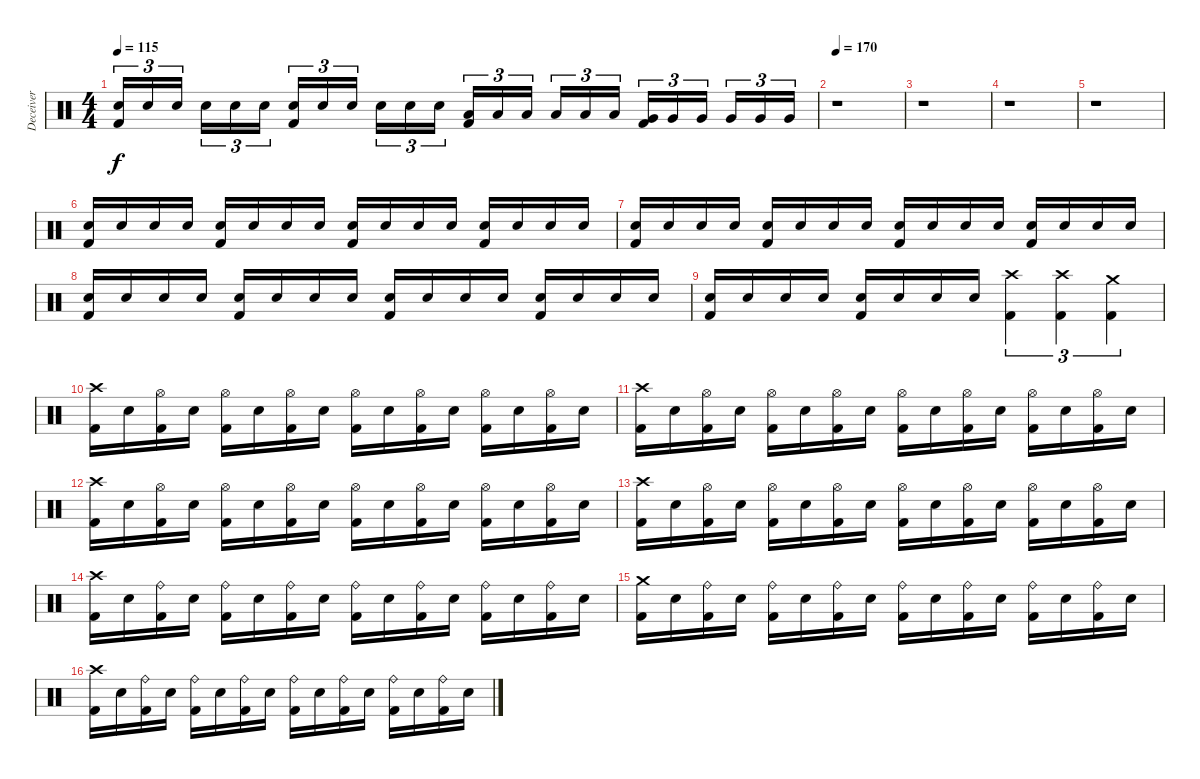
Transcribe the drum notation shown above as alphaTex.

\track ("Deceiver" "Deceiver") {instrument percussion}
\staff {score}
\articulation defaults
\ts (4 4)
\tempo 115
\clef neutral
\ks c
("Electric Snare (hit)" "Kick (hit) 2").16{tu (3 2) dy f} "Electric Snare (hit)".16{tu (3 2)} "Electric Snare (hit)".16{tu (3 2) beam splitsecondary} "Electric Snare (hit)".16{tu (3 2)} "Electric Snare (hit)".16{tu (3 2)} "Electric Snare (hit)".16{tu (3 2)} ("Electric Snare (hit)" "Kick (hit) 2").16{tu (3 2)} "Electric Snare (hit)".16{tu (3 2)} "Electric Snare (hit)".16{tu (3 2) beam splitsecondary} "Electric Snare (hit)".16{tu (3 2)} "Electric Snare (hit)".16{tu (3 2)} "Electric Snare (hit)".16{tu (3 2)} ("Low Tom (hit)" "Kick (hit) 2").16{tu (3 2)} "Low Tom (hit)".16{tu (3 2)} "Low Tom (hit)".16{tu (3 2) beam splitsecondary} "Low Tom (hit)".16{tu (3 2)} "Low Tom (hit)".16{tu (3 2)} "Low Tom (hit)".16{tu (3 2)} ("Very Low Tom (hit)" "Kick (hit) 2").16{tu (3 2)} "Very Low Tom (hit)".16{tu (3 2)} "Very Low Tom (hit)".16{tu (3 2) beam splitsecondary} "Very Low Tom (hit)".16{tu (3 2)} "Very Low Tom (hit)".16{tu (3 2)} "Very Low Tom (hit)".16{tu (3 2)} |
\tempo 170
r.1 |
r.1 |
r.1 |
r.1 |
("Electric Snare (hit)" "Kick (hit) 2").16 "Electric Snare (hit)".16 "Electric Snare (hit)".16 "Electric Snare (hit)".16 ("Electric Snare (hit)" "Kick (hit) 2").16 "Electric Snare (hit)".16 "Electric Snare (hit)".16 "Electric Snare (hit)".16 ("Electric Snare (hit)" "Kick (hit) 2").16 "Electric Snare (hit)".16 "Electric Snare (hit)".16 "Electric Snare (hit)".16 ("Electric Snare (hit)" "Kick (hit) 2").16 "Electric Snare (hit)".16 "Electric Snare (hit)".16 "Electric Snare (hit)".16 |
("Electric Snare (hit)" "Kick (hit) 2").16 "Electric Snare (hit)".16 "Electric Snare (hit)".16 "Electric Snare (hit)".16 ("Electric Snare (hit)" "Kick (hit) 2").16 "Electric Snare (hit)".16 "Electric Snare (hit)".16 "Electric Snare (hit)".16 ("Electric Snare (hit)" "Kick (hit) 2").16 "Electric Snare (hit)".16 "Electric Snare (hit)".16 "Electric Snare (hit)".16 ("Electric Snare (hit)" "Kick (hit) 2").16 "Electric Snare (hit)".16 "Electric Snare (hit)".16 "Electric Snare (hit)".16 |
("Electric Snare (hit)" "Kick (hit) 2").16 "Electric Snare (hit)".16 "Electric Snare (hit)".16 "Electric Snare (hit)".16 ("Electric Snare (hit)" "Kick (hit) 2").16 "Electric Snare (hit)".16 "Electric Snare (hit)".16 "Electric Snare (hit)".16 ("Electric Snare (hit)" "Kick (hit) 2").16 "Electric Snare (hit)".16 "Electric Snare (hit)".16 "Electric Snare (hit)".16 ("Electric Snare (hit)" "Kick (hit) 2").16 "Electric Snare (hit)".16 "Electric Snare (hit)".16 "Electric Snare (hit)".16 |
("Electric Snare (hit)" "Kick (hit) 2").16 "Electric Snare (hit)".16 "Electric Snare (hit)".16 "Electric Snare (hit)".16 ("Electric Snare (hit)" "Kick (hit) 2").16 "Electric Snare (hit)".16 "Electric Snare (hit)".16 "Electric Snare (hit)".16 ("Crash high (hit)" "Kick (hit) 2").4{tu (3 2)} ("Crash high (hit)" "Kick (hit) 2").4{tu (3 2)} ("Crash medium (hit)" "Kick (hit) 2").4{tu (3 2)} |
("Crash high (hit)" "Kick (hit) 2").16 "Electric Snare (hit)".16 ("Hi-Hat (open)" "Kick (hit) 2").16 "Electric Snare (hit)".16 ("Hi-Hat (open)" "Kick (hit) 2").16 "Electric Snare (hit)".16 ("Hi-Hat (open)" "Kick (hit) 2").16 "Electric Snare (hit)".16 ("Hi-Hat (open)" "Kick (hit) 2").16 "Electric Snare (hit)".16 ("Hi-Hat (open)" "Kick (hit) 2").16 "Electric Snare (hit)".16 ("Hi-Hat (open)" "Kick (hit) 2").16 "Electric Snare (hit)".16 ("Hi-Hat (open)" "Kick (hit) 2").16 "Electric Snare (hit)".16 |
("Crash high (hit)" "Kick (hit) 2").16 "Electric Snare (hit)".16 ("Hi-Hat (open)" "Kick (hit) 2").16 "Electric Snare (hit)".16 ("Hi-Hat (open)" "Kick (hit) 2").16 "Electric Snare (hit)".16 ("Hi-Hat (open)" "Kick (hit) 2").16 "Electric Snare (hit)".16 ("Hi-Hat (open)" "Kick (hit) 2").16 "Electric Snare (hit)".16 ("Hi-Hat (open)" "Kick (hit) 2").16 "Electric Snare (hit)".16 ("Hi-Hat (open)" "Kick (hit) 2").16 "Electric Snare (hit)".16 ("Hi-Hat (open)" "Kick (hit) 2").16 "Electric Snare (hit)".16 |
("Crash high (hit)" "Kick (hit) 2").16 "Electric Snare (hit)".16 ("Hi-Hat (open)" "Kick (hit) 2").16 "Electric Snare (hit)".16 ("Hi-Hat (open)" "Kick (hit) 2").16 "Electric Snare (hit)".16 ("Hi-Hat (open)" "Kick (hit) 2").16 "Electric Snare (hit)".16 ("Hi-Hat (open)" "Kick (hit) 2").16 "Electric Snare (hit)".16 ("Hi-Hat (open)" "Kick (hit) 2").16 "Electric Snare (hit)".16 ("Hi-Hat (open)" "Kick (hit) 2").16 "Electric Snare (hit)".16 ("Hi-Hat (open)" "Kick (hit) 2").16 "Electric Snare (hit)".16 |
("Crash high (hit)" "Kick (hit) 2").16 "Electric Snare (hit)".16 ("Hi-Hat (open)" "Kick (hit) 2").16 "Electric Snare (hit)".16 ("Hi-Hat (open)" "Kick (hit) 2").16 "Electric Snare (hit)".16 ("Hi-Hat (open)" "Kick (hit) 2").16 "Electric Snare (hit)".16 ("Hi-Hat (open)" "Kick (hit) 2").16 "Electric Snare (hit)".16 ("Hi-Hat (open)" "Kick (hit) 2").16 "Electric Snare (hit)".16 ("Hi-Hat (open)" "Kick (hit) 2").16 "Electric Snare (hit)".16 ("Hi-Hat (open)" "Kick (hit) 2").16 "Electric Snare (hit)".16 |
("Crash high (hit)" "Kick (hit) 2").16 "Electric Snare (hit)".16 ("Ride (bell)" "Kick (hit) 2").16 "Electric Snare (hit)".16 ("Ride (bell)" "Kick (hit) 2").16 "Electric Snare (hit)".16 ("Ride (bell)" "Kick (hit) 2").16 "Electric Snare (hit)".16 ("Ride (bell)" "Kick (hit) 2").16 "Electric Snare (hit)".16 ("Ride (bell)" "Kick (hit) 2").16 "Electric Snare (hit)".16 ("Ride (bell)" "Kick (hit) 2").16 "Electric Snare (hit)".16 ("Ride (bell)" "Kick (hit) 2").16 "Electric Snare (hit)".16 |
("Crash medium (hit)" "Kick (hit) 2").16 "Electric Snare (hit)".16 ("Ride (bell)" "Kick (hit) 2").16 "Electric Snare (hit)".16 ("Ride (bell)" "Kick (hit) 2").16 "Electric Snare (hit)".16 ("Ride (bell)" "Kick (hit) 2").16 "Electric Snare (hit)".16 ("Ride (bell)" "Kick (hit) 2").16 "Electric Snare (hit)".16 ("Ride (bell)" "Kick (hit) 2").16 "Electric Snare (hit)".16 ("Ride (bell)" "Kick (hit) 2").16 "Electric Snare (hit)".16 ("Ride (bell)" "Kick (hit) 2").16 "Electric Snare (hit)".16 |
("Crash high (hit)" "Kick (hit) 2").16 "Electric Snare (hit)".16 ("Ride (bell)" "Kick (hit) 2").16 "Electric Snare (hit)".16 ("Ride (bell)" "Kick (hit) 2").16 "Electric Snare (hit)".16 ("Ride (bell)" "Kick (hit) 2").16 "Electric Snare (hit)".16 ("Ride (bell)" "Kick (hit) 2").16 "Electric Snare (hit)".16 ("Ride (bell)" "Kick (hit) 2").16 "Electric Snare (hit)".16 ("Ride (bell)" "Kick (hit) 2").16 "Electric Snare (hit)".16 ("Ride (bell)" "Kick (hit) 2").16 "Electric Snare (hit)".16
